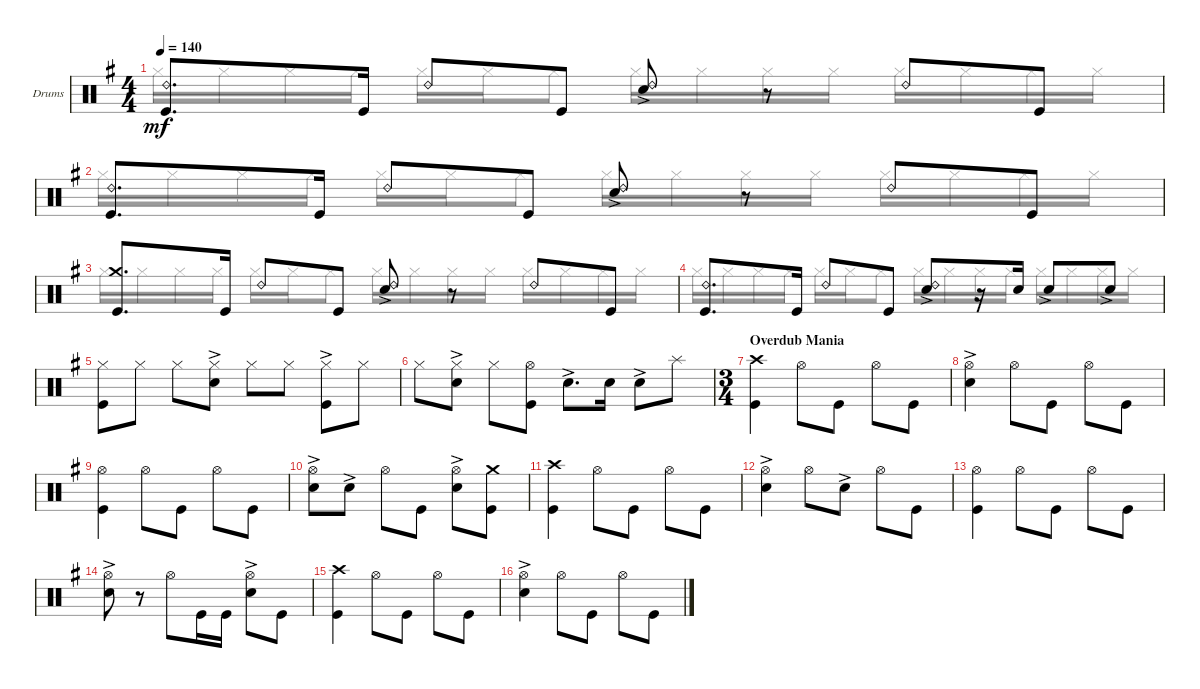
\bracketExtendMode groupsimilarinstruments
\firstSystemTrackNameOrientation horizontal
\otherSystemsTrackNameOrientation horizontal
\track ("Drumkit" "Drums") {instrument percussion}
\staff {score}
\articulation defaults
\voice
\ts (4 4)
\tempo 140
\clef neutral
\ks eminor
("Kick (hit)" "Ride (bell) 2").8{d dy mf} "Kick (hit)".16 "Ride (bell) 2".8 "Kick (hit)".8 ("Snare (hit) 2"{ac} "Ride (bell) 2").8 r.8 "Ride (bell) 2".8 "Kick (hit)".8 |
("Kick (hit)" "Ride (bell) 2").8{d} "Kick (hit)".16 "Ride (bell) 2".8 "Kick (hit)".8 ("Snare (hit) 2"{ac} "Ride (bell) 2").8 r.8 "Ride (bell) 2".8 "Kick (hit)".8 |
("Kick (hit)" "Crash medium (hit)").8{d} "Kick (hit)".16 "Ride (bell) 2".8 "Kick (hit)".8 ("Snare (hit) 2"{ac} "Ride (bell) 2").8 r.8 "Ride (bell) 2".8 "Kick (hit)".8 |
("Kick (hit)" "Ride (bell) 2").8{d} "Kick (hit)".16 "Ride (bell) 2".8 "Kick (hit)".8 ("Snare (hit) 2"{ac} "Ride (bell) 2").8 r.16 "Snare (hit) 2".16 "Snare (hit) 2"{ac}.8 "Snare (hit) 2"{ac}.8 |
("Kick (hit)" "Hi-Hat (closed)").8 "Hi-Hat (closed)".8 "Hi-Hat (closed)".8 ("Snare (hit) 2"{ac} "Hi-Hat (closed)").8 "Hi-Hat (closed)".8 "Hi-Hat (closed)".8 ("Hi-Hat (closed)" "Kick (hit)"{ac}).8 "Hi-Hat (closed)".8 |
"Hi-Hat (closed)".8 ("Hi-Hat (closed)" "Snare (hit) 2"{ac}).8 "Hi-Hat (closed)".8 ("Kick (hit)" "Hi-Hat (open)").8 "Snare (hit) 2"{ac}.8{d} "Snare (hit) 2".16 "Snare (hit) 2"{ac}.8 "Splash (hit)".8 |
\ts (3 4)
\section ("" "Overdub Mania")
("Kick (hit)" "Crash high (hit)").4 "Hi-Hat (open)".8 "Kick (hit)".8 "Hi-Hat (open)".8 "Kick (hit)".8 |
("Snare (hit) 2"{ac} "Hi-Hat (open)").4 "Hi-Hat (open)".8 "Kick (hit)".8 "Hi-Hat (open)".8 "Kick (hit)".8 |
("Kick (hit)" "Hi-Hat (open)").4 "Hi-Hat (open)".8 "Kick (hit)".8 "Hi-Hat (open)".8 "Kick (hit)".8 |
("Snare (hit) 2"{ac} "Hi-Hat (open)").8 "Snare (hit) 2"{ac}.8 "Hi-Hat (open)".8 "Kick (hit)".8 ("Snare (hit) 2"{ac} "Hi-Hat (open)").8 ("Kick (hit)" "Crash medium (hit)").8 |
("Kick (hit)" "Crash high (hit)").4 "Hi-Hat (open)".8 "Kick (hit)".8 "Hi-Hat (open)".8 "Kick (hit)".8 |
("Snare (hit) 2"{ac} "Hi-Hat (open)").4 "Hi-Hat (open)".8 "Snare (hit) 2"{ac}.8 "Hi-Hat (open)".8 "Kick (hit)".8 |
("Kick (hit)" "Hi-Hat (open)").4 "Hi-Hat (open)".8 "Kick (hit)".8 "Hi-Hat (open)".8 "Kick (hit)".8 |
("Snare (hit) 2"{ac} "Hi-Hat (open)").8 r.8 "Hi-Hat (open)".8 "Kick (hit)".16 "Kick (hit)".16 ("Snare (hit) 2"{ac} "Hi-Hat (open)").8 "Kick (hit)".8 |
("Kick (hit)" "Crash high (hit)").4 "Hi-Hat (open)".8 "Kick (hit)".8 "Hi-Hat (open)".8 "Kick (hit)".8 |
("Snare (hit) 2"{ac} "Hi-Hat (open)").4 "Hi-Hat (open)".8 "Kick (hit)".8 "Hi-Hat (open)".8 "Kick (hit)".8
\voice
\clef neutral
\ottava regular
\simile none
\ks eminor "Hi-Hat (closed)".16{dy mf} "Hi-Hat (closed)".16 "Hi-Hat (closed)".16 "Hi-Hat (closed)".16 "Hi-Hat (closed)".16 "Hi-Hat (closed)".16 "Hi-Hat (closed)".8 "Hi-Hat (closed)".16 "Hi-Hat (closed)".16 "Hi-Hat (closed)".16 "Hi-Hat (closed)".16 "Hi-Hat (closed)".16 "Hi-Hat (closed)".16 "Hi-Hat (closed)".16 "Hi-Hat (closed)".16
|
"Hi-Hat (closed)".16 "Hi-Hat (closed)".16 "Hi-Hat (closed)".16 "Hi-Hat (closed)".16 "Hi-Hat (closed)".16 "Hi-Hat (closed)".16 "Hi-Hat (closed)".8 "Hi-Hat (closed)".16 "Hi-Hat (closed)".16 "Hi-Hat (closed)".16 "Hi-Hat (closed)".16 "Hi-Hat (closed)".16 "Hi-Hat (closed)".16 "Hi-Hat (closed)".16 "Hi-Hat (closed)".16 |
"Hi-Hat (closed)".16 "Hi-Hat (closed)".16 "Hi-Hat (closed)".16 "Hi-Hat (closed)".16 "Hi-Hat (closed)".16 "Hi-Hat (closed)".16 "Hi-Hat (closed)".8 "Hi-Hat (closed)".16 "Hi-Hat (closed)".16 "Hi-Hat (closed)".16 "Hi-Hat (closed)".16 "Hi-Hat (closed)".16 "Hi-Hat (closed)".16 "Hi-Hat (closed)".16 "Hi-Hat (closed)".16 |
"Hi-Hat (closed)".16 "Hi-Hat (closed)".16 "Hi-Hat (closed)".16 "Hi-Hat (closed)".16 "Hi-Hat (closed)".16 "Hi-Hat (closed)".16 "Hi-Hat (closed)".8 "Hi-Hat (closed)".16 "Hi-Hat (closed)".16 "Hi-Hat (closed)".16 "Hi-Hat (closed)".16 "Hi-Hat (closed)".16 "Hi-Hat (closed)".16 "Hi-Hat (closed)".16 "Hi-Hat (closed)".16 |
|
|
|
|
|
|
|
|
|
|
|
